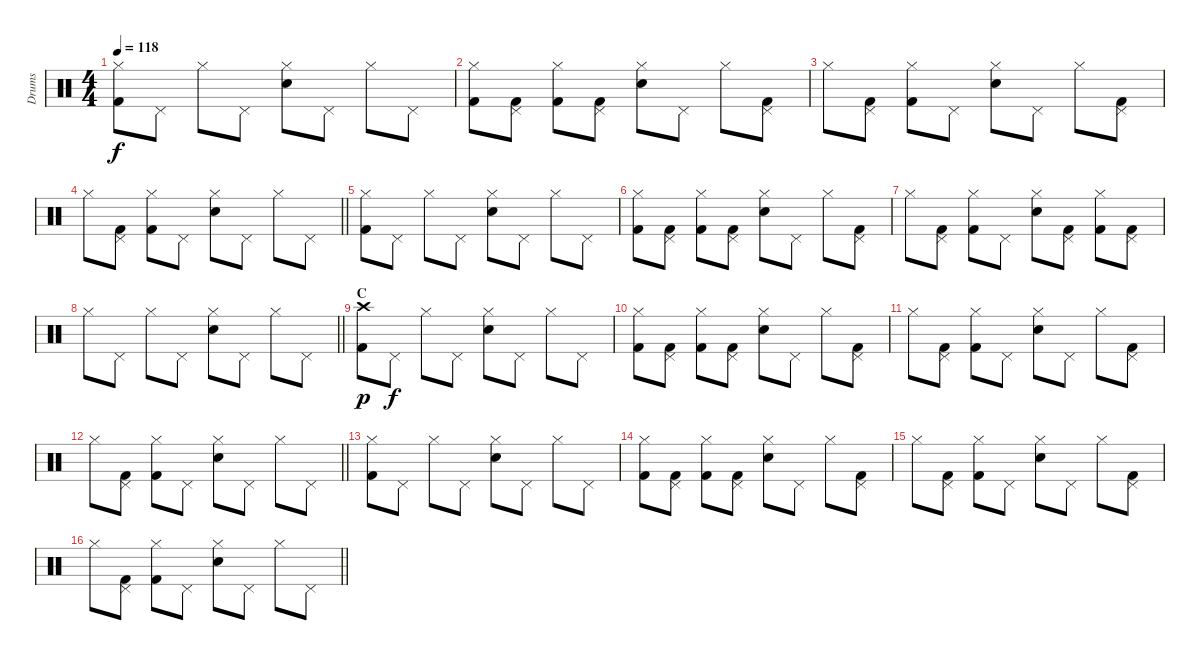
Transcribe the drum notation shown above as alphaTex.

\track ("Drums" "Drums") {instrument percussion}
\staff {score}
\articulation defaults
\ts (4 4)
\tempo 118
\clef neutral
\ks c
("Hi-Hat (closed)" "Kick (hit) 2").8{dy f} "Pedal Hi-Hat (hit)".8 "Hi-Hat (closed)".8 "Pedal Hi-Hat (hit)".8 ("Hi-Hat (closed)" "Electric Snare (hit)").8 "Pedal Hi-Hat (hit)".8 "Hi-Hat (closed)".8 "Pedal Hi-Hat (hit)".8 |
("Hi-Hat (closed)" "Kick (hit) 2").8 ("Pedal Hi-Hat (hit)" "Kick (hit) 2").8 ("Hi-Hat (closed)" "Kick (hit) 2").8 ("Pedal Hi-Hat (hit)" "Kick (hit) 2").8 ("Hi-Hat (closed)" "Electric Snare (hit)").8 "Pedal Hi-Hat (hit)".8 "Hi-Hat (closed)".8 ("Pedal Hi-Hat (hit)" "Kick (hit) 2").8 |
"Hi-Hat (closed)".8 ("Pedal Hi-Hat (hit)" "Kick (hit) 2").8 ("Hi-Hat (closed)" "Kick (hit) 2").8 "Pedal Hi-Hat (hit)".8 ("Hi-Hat (closed)" "Electric Snare (hit)").8 "Pedal Hi-Hat (hit)".8 "Hi-Hat (closed)".8 ("Pedal Hi-Hat (hit)" "Kick (hit) 2").8 |
\barLineRight lightlight "Hi-Hat (closed)".8
("Pedal Hi-Hat (hit)" "Kick (hit) 2").8 ("Hi-Hat (closed)" "Kick (hit) 2").8 "Pedal Hi-Hat (hit)".8 ("Hi-Hat (closed)" "Electric Snare (hit)").8 "Pedal Hi-Hat (hit)".8 "Hi-Hat (closed)".8 "Pedal Hi-Hat (hit)".8 |
("Hi-Hat (closed)" "Kick (hit) 2").8 "Pedal Hi-Hat (hit)".8 "Hi-Hat (closed)".8 "Pedal Hi-Hat (hit)".8 ("Hi-Hat (closed)" "Electric Snare (hit)").8 "Pedal Hi-Hat (hit)".8 "Hi-Hat (closed)".8 "Pedal Hi-Hat (hit)".8 |
("Hi-Hat (closed)" "Kick (hit) 2").8 ("Pedal Hi-Hat (hit)" "Kick (hit) 2").8 ("Hi-Hat (closed)" "Kick (hit) 2").8 ("Pedal Hi-Hat (hit)" "Kick (hit) 2").8 ("Hi-Hat (closed)" "Electric Snare (hit)").8 "Pedal Hi-Hat (hit)".8 "Hi-Hat (closed)".8 ("Pedal Hi-Hat (hit)" "Kick (hit) 2").8 |
"Hi-Hat (closed)".8 ("Pedal Hi-Hat (hit)" "Kick (hit) 2").8 ("Hi-Hat (closed)" "Kick (hit) 2").8 "Pedal Hi-Hat (hit)".8 ("Hi-Hat (closed)" "Electric Snare (hit)").8 ("Pedal Hi-Hat (hit)" "Kick (hit) 2").8 ("Hi-Hat (closed)" "Kick (hit) 2").8 ("Pedal Hi-Hat (hit)" "Kick (hit) 2").8 |
\barLineRight lightlight "Hi-Hat (closed)".8 "Pedal Hi-Hat (hit)".8 "Hi-Hat (closed)".8 "Pedal Hi-Hat (hit)".8
("Hi-Hat (closed)" "Electric Snare (hit)").8 "Pedal Hi-Hat (hit)".8 "Hi-Hat (closed)".8 "Pedal Hi-Hat (hit)".8 |
\section ("" "C")
("Crash high (hit)" "Kick (hit) 2").8{dy p} "Pedal Hi-Hat (hit)".8{dy f} "Hi-Hat (closed)".8 "Pedal Hi-Hat (hit)".8 ("Hi-Hat (closed)" "Electric Snare (hit)").8 "Pedal Hi-Hat (hit)".8 "Hi-Hat (closed)".8 "Pedal Hi-Hat (hit)".8 |
("Hi-Hat (closed)" "Kick (hit) 2").8 ("Pedal Hi-Hat (hit)" "Kick (hit) 2").8 ("Hi-Hat (closed)" "Kick (hit) 2").8 ("Pedal Hi-Hat (hit)" "Kick (hit) 2").8 ("Hi-Hat (closed)" "Electric Snare (hit)").8 "Pedal Hi-Hat (hit)".8 "Hi-Hat (closed)".8 ("Pedal Hi-Hat (hit)" "Kick (hit) 2").8 |
"Hi-Hat (closed)".8 ("Pedal Hi-Hat (hit)" "Kick (hit) 2").8 ("Hi-Hat (closed)" "Kick (hit) 2").8 "Pedal Hi-Hat (hit)".8 ("Hi-Hat (closed)" "Electric Snare (hit)").8 "Pedal Hi-Hat (hit)".8 "Hi-Hat (closed)".8 ("Pedal Hi-Hat (hit)" "Kick (hit) 2").8 |
\barLineRight lightlight "Hi-Hat (closed)".8
("Pedal Hi-Hat (hit)" "Kick (hit) 2").8 ("Hi-Hat (closed)" "Kick (hit) 2").8 "Pedal Hi-Hat (hit)".8 ("Hi-Hat (closed)" "Electric Snare (hit)").8 "Pedal Hi-Hat (hit)".8 "Hi-Hat (closed)".8 "Pedal Hi-Hat (hit)".8 |
("Hi-Hat (closed)" "Kick (hit) 2").8 "Pedal Hi-Hat (hit)".8 "Hi-Hat (closed)".8 "Pedal Hi-Hat (hit)".8 ("Hi-Hat (closed)" "Electric Snare (hit)").8 "Pedal Hi-Hat (hit)".8 "Hi-Hat (closed)".8 "Pedal Hi-Hat (hit)".8 |
("Hi-Hat (closed)" "Kick (hit) 2").8 ("Pedal Hi-Hat (hit)" "Kick (hit) 2").8 ("Hi-Hat (closed)" "Kick (hit) 2").8 ("Pedal Hi-Hat (hit)" "Kick (hit) 2").8 ("Hi-Hat (closed)" "Electric Snare (hit)").8 "Pedal Hi-Hat (hit)".8 "Hi-Hat (closed)".8 ("Pedal Hi-Hat (hit)" "Kick (hit) 2").8 |
"Hi-Hat (closed)".8 ("Pedal Hi-Hat (hit)" "Kick (hit) 2").8 ("Hi-Hat (closed)" "Kick (hit) 2").8 "Pedal Hi-Hat (hit)".8 ("Hi-Hat (closed)" "Electric Snare (hit)").8 "Pedal Hi-Hat (hit)".8 "Hi-Hat (closed)".8 ("Pedal Hi-Hat (hit)" "Kick (hit) 2").8 |
\barLineRight lightlight "Hi-Hat (closed)".8
("Pedal Hi-Hat (hit)" "Kick (hit) 2").8 ("Hi-Hat (closed)" "Kick (hit) 2").8 "Pedal Hi-Hat (hit)".8 ("Hi-Hat (closed)" "Electric Snare (hit)").8 "Pedal Hi-Hat (hit)".8 "Hi-Hat (closed)".8 "Pedal Hi-Hat (hit)".8
